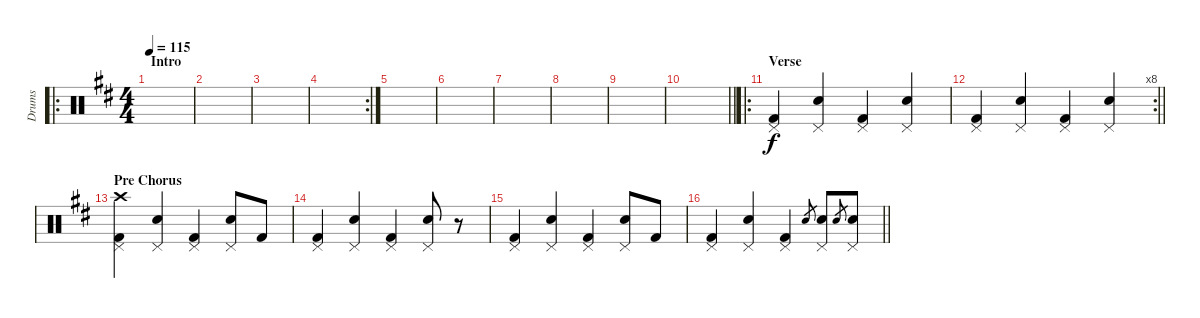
\track ("Drums" "Drums") {instrument percussion}
\staff {score}
\articulation defaults
\ro
\ts (4 4)
\section ("" "Intro")
\tempo 115
\clef neutral
\ks d
|
|
|
\rc 2
|
|
|
|
|
|
\barLineRight lightlight
|
\ro
\section ("" "Verse")
("Kick (hit) 2" "Pedal Hi-Hat (hit)").4 ("Snare (hit) 2" "Pedal Hi-Hat (hit)").4 ("Kick (hit) 2" "Pedal Hi-Hat (hit)").4 ("Snare (hit) 2" "Pedal Hi-Hat (hit)").4 |
\rc 8
\barLineRight lightlight
("Kick (hit) 2" "Pedal Hi-Hat (hit)").4 ("Snare (hit) 2" "Pedal Hi-Hat (hit)").4 ("Kick (hit) 2" "Pedal Hi-Hat (hit)").4 ("Snare (hit) 2" "Pedal Hi-Hat (hit)").4 |
\section ("" "Pre Chorus")
("Kick (hit) 2" "Pedal Hi-Hat (hit)" "Crash high (hit)").4 ("Snare (hit) 2" "Pedal Hi-Hat (hit)").4 ("Kick (hit) 2" "Pedal Hi-Hat (hit)").4 ("Snare (hit) 2" "Pedal Hi-Hat (hit)").8 "Kick (hit) 2".8 |
("Kick (hit) 2" "Pedal Hi-Hat (hit)").4 ("Snare (hit) 2" "Pedal Hi-Hat (hit)").4 ("Kick (hit) 2" "Pedal Hi-Hat (hit)").4 ("Snare (hit) 2" "Pedal Hi-Hat (hit)").8 r.8 |
("Kick (hit) 2" "Pedal Hi-Hat (hit)").4 ("Snare (hit) 2" "Pedal Hi-Hat (hit)").4 ("Kick (hit) 2" "Pedal Hi-Hat (hit)").4 ("Snare (hit) 2" "Pedal Hi-Hat (hit)").8 "Kick (hit) 2".8 |
\barLineRight lightlight
("Kick (hit) 2" "Pedal Hi-Hat (hit)").4 ("Snare (hit) 2" "Pedal Hi-Hat (hit)").4 ("Kick (hit) 2" "Pedal Hi-Hat (hit)").4 "Snare (hit) 2".8{gr} ("Snare (hit) 2" "Pedal Hi-Hat (hit)").8 "Snare (hit) 2".8{gr} ("Snare (hit) 2" "Pedal Hi-Hat (hit)").8
